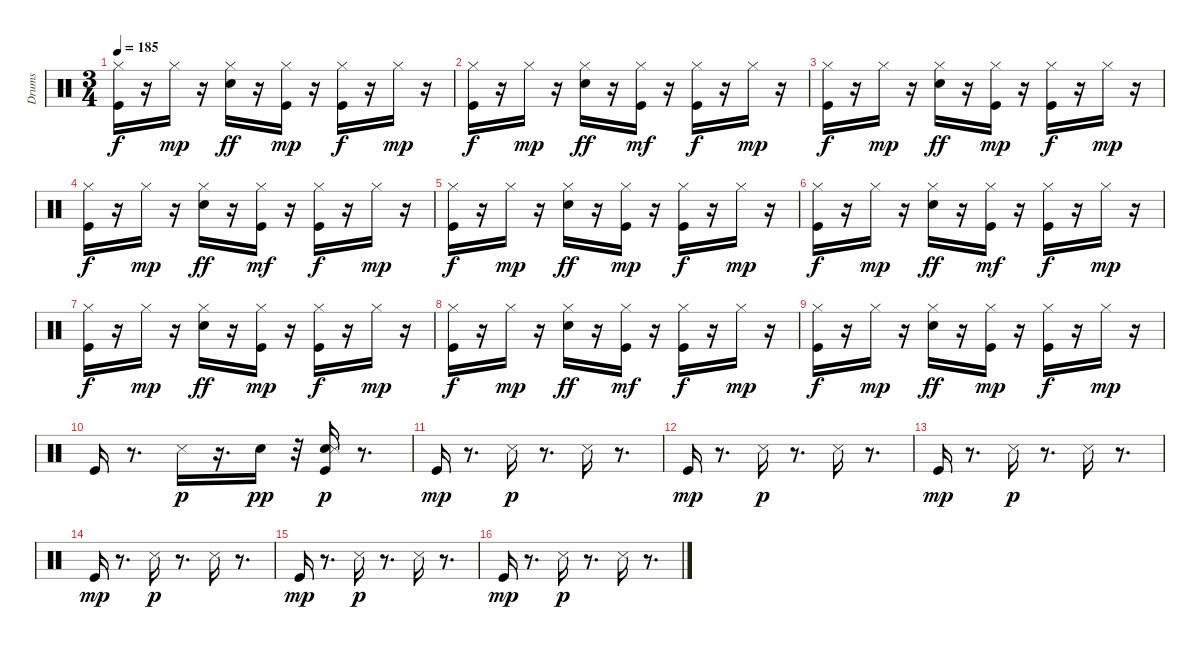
\track ("Drums " "Drums ") {instrument percussion}
\staff {score}
\articulation defaults
\ts (3 4)
\tempo 185
\clef neutral
\ks c
("Kick (hit)" "Hi-Hat (closed)").16{dy f} r.16 "Hi-Hat (closed)".16{dy mp} r.16 ("Snare (hit) 2" "Hi-Hat (closed)").16{dy ff} r.16 ("Kick (hit)" "Hi-Hat (closed)").16{dy mp} r.16 ("Kick (hit)" "Hi-Hat (closed)").16{dy f} r.16 "Hi-Hat (closed)".16{dy mp} r.16 |
("Kick (hit)" "Hi-Hat (closed)").16{dy f} r.16 "Hi-Hat (closed)".16{dy mp} r.16 ("Snare (hit) 2" "Hi-Hat (closed)").16{dy ff} r.16 ("Kick (hit)" "Hi-Hat (closed)").16{dy mf} r.16 ("Kick (hit)" "Hi-Hat (closed)").16{dy f} r.16 "Hi-Hat (closed)".16{dy mp} r.16 |
("Kick (hit)" "Hi-Hat (closed)").16{dy f} r.16 "Hi-Hat (closed)".16{dy mp} r.16 ("Snare (hit) 2" "Hi-Hat (closed)").16{dy ff} r.16 ("Kick (hit)" "Hi-Hat (closed)").16{dy mp} r.16 ("Kick (hit)" "Hi-Hat (closed)").16{dy f} r.16 "Hi-Hat (closed)".16{dy mp} r.16 |
("Kick (hit)" "Hi-Hat (closed)").16{dy f} r.16 "Hi-Hat (closed)".16{dy mp} r.16 ("Snare (hit) 2" "Hi-Hat (closed)").16{dy ff} r.16 ("Kick (hit)" "Hi-Hat (closed)").16{dy mf} r.16 ("Kick (hit)" "Hi-Hat (closed)").16{dy f} r.16 "Hi-Hat (closed)".16{dy mp} r.16 |
("Kick (hit)" "Hi-Hat (closed)").16{dy f} r.16 "Hi-Hat (closed)".16{dy mp} r.16 ("Snare (hit) 2" "Hi-Hat (closed)").16{dy ff} r.16 ("Kick (hit)" "Hi-Hat (closed)").16{dy mp} r.16 ("Kick (hit)" "Hi-Hat (closed)").16{dy f} r.16 "Hi-Hat (closed)".16{dy mp} r.16 |
("Kick (hit)" "Hi-Hat (closed)").16{dy f} r.16 "Hi-Hat (closed)".16{dy mp volume 2} r.16 ("Snare (hit) 2" "Hi-Hat (closed)").16{dy ff} r.16 ("Kick (hit)" "Hi-Hat (closed)").16{dy mf} r.16 ("Kick (hit)" "Hi-Hat (closed)").16{dy f} r.16 "Hi-Hat (closed)".16{dy mp} r.16 |
("Kick (hit)" "Hi-Hat (closed)").16{dy f} r.16 "Hi-Hat (closed)".16{dy mp} r.16 ("Snare (hit) 2" "Hi-Hat (closed)").16{dy ff} r.16 ("Kick (hit)" "Hi-Hat (closed)").16{dy mp} r.16 ("Kick (hit)" "Hi-Hat (closed)").16{dy f} r.16 "Hi-Hat (closed)".16{dy mp} r.16 |
("Kick (hit)" "Hi-Hat (closed)").16{dy f} r.16 "Hi-Hat (closed)".16{dy mp} r.16 ("Snare (hit) 2" "Hi-Hat (closed)").16{dy ff} r.16 ("Kick (hit)" "Hi-Hat (closed)").16{dy mf} r.16 ("Kick (hit)" "Hi-Hat (closed)").16{dy f} r.16 "Hi-Hat (closed)".16{dy mp} r.16 |
("Kick (hit)" "Hi-Hat (closed)").16{dy f} r.16 "Hi-Hat (closed)".16{dy mp} r.16 ("Snare (hit) 2" "Hi-Hat (closed)").16{dy ff} r.16 ("Kick (hit)" "Hi-Hat (closed)").16{dy mp} r.16 ("Kick (hit)" "Hi-Hat (closed)").16{dy f} r.16 "Hi-Hat (closed)".16{dy mp} r.16 |
"Kick (hit)".16 r.8{d} "Snare (side stick) 3".16{dy p} r.16{d} "Snare (hit) 2".16{dy pp} r.32 ("Kick (hit)" "Snare (hit) 2" "Snare (side stick) 3").16{dy p} r.8{d} |
"Kick (hit)".16{dy mp} r.8{d} "Snare (side stick) 3".16{dy p} r.8{d} "Snare (side stick) 3".16 r.8{d} |
"Kick (hit)".16{dy mp} r.8{d} "Snare (side stick) 3".16{dy p} r.8{d} "Snare (side stick) 3".16 r.8{d} |
"Kick (hit)".16{dy mp} r.8{d} "Snare (side stick) 3".16{dy p} r.8{d} "Snare (side stick) 3".16 r.8{d} |
"Kick (hit)".16{dy mp} r.8{d} "Snare (side stick) 3".16{dy p} r.8{d} "Snare (side stick) 3".16 r.8{d} |
"Kick (hit)".16{dy mp} r.8{d} "Snare (side stick) 3".16{dy p} r.8{d} "Snare (side stick) 3".16 r.8{d} |
"Kick (hit)".16{dy mp volume 2} r.8{d} "Snare (side stick) 3".16{dy p volume 7} r.8{d} "Snare (side stick) 3".16{volume 12} r.8{d}
